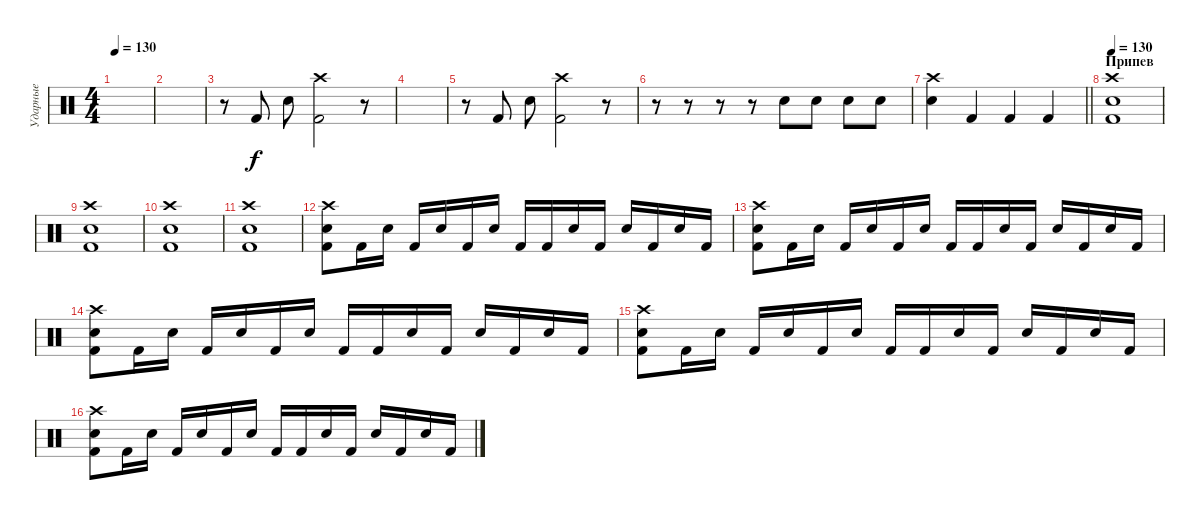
\track ("Ударные" "Ударные") {instrument percussion}
\staff {score}
\articulation defaults
\ts (4 4)
\tempo 130
\clef neutral
\ks c
|
|
r.8 "Kick (hit) 2".8 "Snare (hit) 2".8 ("Crash high (hit)" "Kick (hit) 2").2 r.8 |
|
r.8 "Kick (hit) 2".8 "Snare (hit) 2".8 ("Crash high (hit)" "Kick (hit) 2").2 r.8 |
r.8 r.8 r.8 r.8 "Snare (hit) 2".8 "Snare (hit) 2".8 "Snare (hit) 2".8 "Snare (hit) 2".8 |
\barLineRight lightlight
("Crash high (hit)" "Snare (hit) 2").4 "Kick (hit) 2".4 "Kick (hit) 2".4 "Kick (hit) 2".4 |
\section ("" "Припев")
\tempo 130
("Crash high (hit)" "Kick (hit) 2" "Snare (hit) 2").1 |
("Crash high (hit)" "Kick (hit) 2" "Snare (hit) 2").1 |
("Crash high (hit)" "Kick (hit) 2" "Snare (hit) 2").1 |
("Crash high (hit)" "Kick (hit) 2" "Snare (hit) 2").1 |
("Crash high (hit)" "Kick (hit) 2" "Snare (hit) 2").8 "Kick (hit) 2".16 "Snare (hit) 2".16 "Kick (hit) 2".16 "Snare (hit) 2".16 "Kick (hit) 2".16 "Snare (hit) 2".16 "Kick (hit) 2".16 "Kick (hit) 2".16 "Snare (hit) 2".16 "Kick (hit) 2".16 "Snare (hit) 2".16 "Kick (hit) 2".16 "Snare (hit) 2".16 "Kick (hit) 2".16 |
("Crash high (hit)" "Kick (hit) 2" "Snare (hit) 2").8 "Kick (hit) 2".16 "Snare (hit) 2".16 "Kick (hit) 2".16 "Snare (hit) 2".16 "Kick (hit) 2".16 "Snare (hit) 2".16 "Kick (hit) 2".16 "Kick (hit) 2".16 "Snare (hit) 2".16 "Kick (hit) 2".16 "Snare (hit) 2".16 "Kick (hit) 2".16 "Snare (hit) 2".16 "Kick (hit) 2".16 |
("Crash high (hit)" "Kick (hit) 2" "Snare (hit) 2").8 "Kick (hit) 2".16 "Snare (hit) 2".16 "Kick (hit) 2".16 "Snare (hit) 2".16 "Kick (hit) 2".16 "Snare (hit) 2".16 "Kick (hit) 2".16 "Kick (hit) 2".16 "Snare (hit) 2".16 "Kick (hit) 2".16 "Snare (hit) 2".16 "Kick (hit) 2".16 "Snare (hit) 2".16 "Kick (hit) 2".16 |
("Crash high (hit)" "Kick (hit) 2" "Snare (hit) 2").8 "Kick (hit) 2".16 "Snare (hit) 2".16 "Kick (hit) 2".16 "Snare (hit) 2".16 "Kick (hit) 2".16 "Snare (hit) 2".16 "Kick (hit) 2".16 "Kick (hit) 2".16 "Snare (hit) 2".16 "Kick (hit) 2".16 "Snare (hit) 2".16 "Kick (hit) 2".16 "Snare (hit) 2".16 "Kick (hit) 2".16 |
("Crash high (hit)" "Kick (hit) 2" "Snare (hit) 2").8 "Kick (hit) 2".16 "Snare (hit) 2".16 "Kick (hit) 2".16 "Snare (hit) 2".16 "Kick (hit) 2".16 "Snare (hit) 2".16 "Kick (hit) 2".16 "Kick (hit) 2".16 "Snare (hit) 2".16 "Kick (hit) 2".16 "Snare (hit) 2".16 "Kick (hit) 2".16 "Snare (hit) 2".16 "Kick (hit) 2".16
